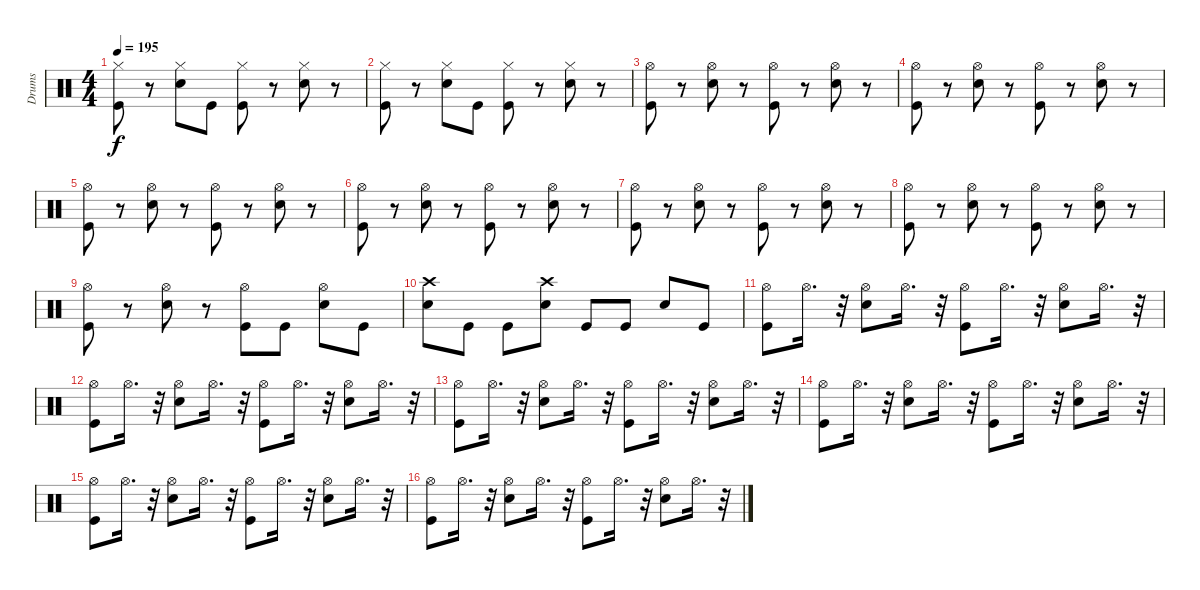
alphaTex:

\track ("Drums" "Drums") {instrument percussion}
\staff {score}
\articulation defaults
\ts (4 4)
\tempo 195
\clef neutral
\ks c
("Hi-Hat (closed)" "Kick (hit)").8{dy f} r.8 ("Electric Snare (hit)" "Hi-Hat (closed)").8 "Kick (hit)".8 ("Hi-Hat (closed)" "Kick (hit)").8 r.8 ("Hi-Hat (closed)" "Electric Snare (hit)").8 r.8 |
("Hi-Hat (closed)" "Kick (hit)").8 r.8 ("Electric Snare (hit)" "Hi-Hat (closed)").8 "Kick (hit)".8 ("Kick (hit)" "Hi-Hat (closed)").8 r.8 ("Hi-Hat (closed)" "Electric Snare (hit)").8 r.8 |
("Hi-Hat (open)" "Kick (hit)").8 r.8 ("Hi-Hat (open)" "Electric Snare (hit)").8 r.8 ("Kick (hit)" "Hi-Hat (open)").8 r.8 ("Electric Snare (hit)" "Hi-Hat (open)").8 r.8 |
("Hi-Hat (open)" "Kick (hit)").8 r.8 ("Electric Snare (hit)" "Hi-Hat (open)").8 r.8 ("Kick (hit)" "Hi-Hat (open)").8 r.8 ("Electric Snare (hit)" "Hi-Hat (open)").8 r.8 |
("Kick (hit)" "Hi-Hat (open)").8 r.8 ("Hi-Hat (open)" "Electric Snare (hit)").8 r.8 ("Kick (hit)" "Hi-Hat (open)").8 r.8 ("Hi-Hat (open)" "Electric Snare (hit)").8 r.8 |
("Hi-Hat (open)" "Kick (hit)").8 r.8 ("Hi-Hat (open)" "Electric Snare (hit)").8 r.8 ("Kick (hit)" "Hi-Hat (open)").8 r.8 ("Hi-Hat (open)" "Electric Snare (hit)").8 r.8 |
("Hi-Hat (open)" "Kick (hit)").8 r.8 ("Hi-Hat (open)" "Electric Snare (hit)").8 r.8 ("Kick (hit)" "Hi-Hat (open)").8 r.8 ("Hi-Hat (open)" "Electric Snare (hit)").8 r.8 |
("Hi-Hat (open)" "Kick (hit)").8 r.8 ("Hi-Hat (open)" "Electric Snare (hit)").8 r.8 ("Kick (hit)" "Hi-Hat (open)").8 r.8 ("Electric Snare (hit)" "Hi-Hat (open)").8 r.8 |
("Hi-Hat (open)" "Kick (hit)").8 r.8 ("Electric Snare (hit)" "Hi-Hat (open)").8 r.8 ("Kick (hit)" "Hi-Hat (open)").8 "Kick (hit)".8 ("Electric Snare (hit)" "Hi-Hat (open)").8 "Kick (hit)".8 |
("Crash high (hit)" "Electric Snare (hit)").8 "Kick (hit)".8 "Kick (hit)".8 ("Crash high (hit)" "Electric Snare (hit)").8 "Kick (hit)".8 "Kick (hit)".8 "Electric Snare (hit)".8 "Kick (hit)".8 |
("Hi-Hat (open)" "Kick (hit)").8 "Hi-Hat (open)".16{d} r.32 ("Hi-Hat (open)" "Electric Snare (hit)").8 "Hi-Hat (open)".16{d} r.32 ("Kick (hit)" "Hi-Hat (open)").8 "Hi-Hat (open)".16{d} r.32 ("Electric Snare (hit)" "Hi-Hat (open)").8 "Hi-Hat (open)".16{d} r.32 |
("Kick (hit)" "Hi-Hat (open)").8 "Hi-Hat (open)".16{d} r.32 ("Hi-Hat (open)" "Electric Snare (hit)").8 "Hi-Hat (open)".16{d} r.32 ("Hi-Hat (open)" "Kick (hit)").8 "Hi-Hat (open)".16{d} r.32 ("Hi-Hat (open)" "Electric Snare (hit)").8 "Hi-Hat (open)".16{d} r.32 |
("Hi-Hat (open)" "Kick (hit)").8 "Hi-Hat (open)".16{d} r.32 ("Electric Snare (hit)" "Hi-Hat (open)").8 "Hi-Hat (open)".16{d} r.32 ("Kick (hit)" "Hi-Hat (open)").8 "Hi-Hat (open)".16{d} r.32 ("Electric Snare (hit)" "Hi-Hat (open)").8 "Hi-Hat (open)".16{d} r.32 |
("Hi-Hat (open)" "Kick (hit)").8 "Hi-Hat (open)".16{d} r.32 ("Electric Snare (hit)" "Hi-Hat (open)").8 "Hi-Hat (open)".16{d} r.32 ("Kick (hit)" "Hi-Hat (open)").8 "Hi-Hat (open)".16{d} r.32 ("Electric Snare (hit)" "Hi-Hat (open)").8 "Hi-Hat (open)".16{d} r.32 |
("Kick (hit)" "Hi-Hat (open)").8 "Hi-Hat (open)".16{d} r.32 ("Hi-Hat (open)" "Electric Snare (hit)").8 "Hi-Hat (open)".16{d} r.32 ("Kick (hit)" "Hi-Hat (open)").8 "Hi-Hat (open)".16{d} r.32 ("Electric Snare (hit)" "Hi-Hat (open)").8 "Hi-Hat (open)".16{d} r.32 |
("Kick (hit)" "Hi-Hat (open)").8 "Hi-Hat (open)".16{d} r.32 ("Hi-Hat (open)" "Electric Snare (hit)").8 "Hi-Hat (open)".16{d} r.32 ("Kick (hit)" "Hi-Hat (open)").8 "Hi-Hat (open)".16{d} r.32 ("Hi-Hat (open)" "Electric Snare (hit)").8 "Hi-Hat (open)".16{d} r.32
